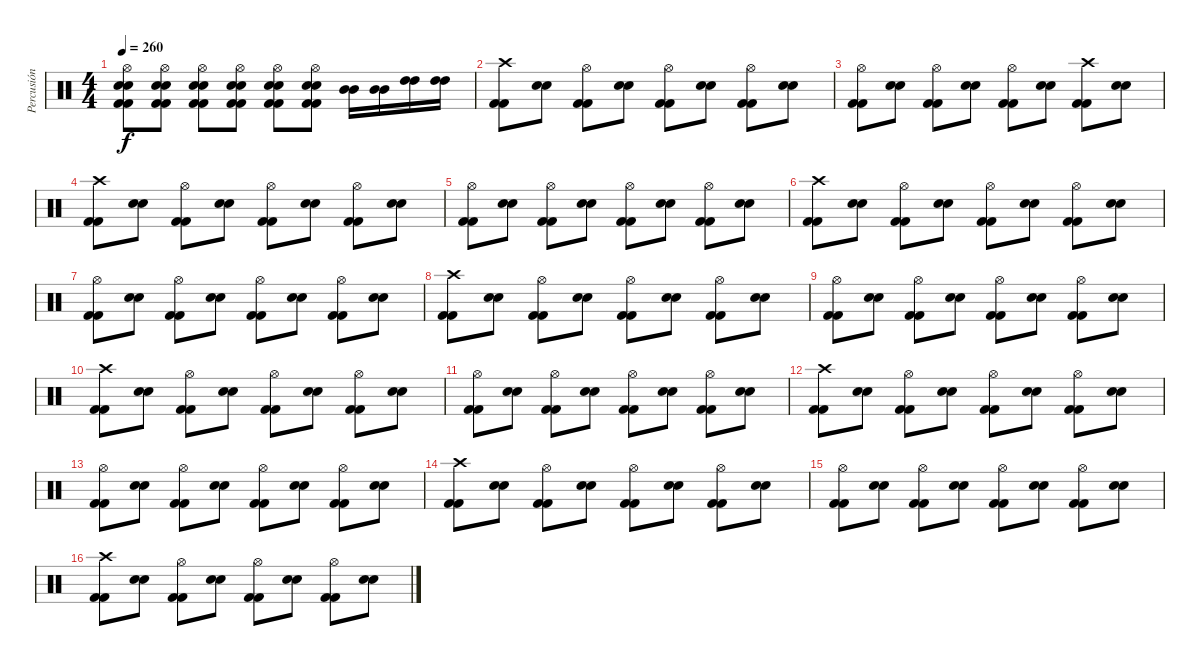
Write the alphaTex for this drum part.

\track ("Percusión" "Percusión") {instrument percussion}
\staff {score}
\articulation defaults
\ts (4 4)
\tempo 260
\clef neutral
\ks c
("Kick (hit) 2" "Kick (hit) 2" "Electric Snare (hit)" "Electric Snare (hit)" "Hi-Hat (open)").8{dy f} ("Kick (hit) 2" "Kick (hit) 2" "Electric Snare (hit)" "Electric Snare (hit)" "Hi-Hat (open)").8 ("Kick (hit) 2" "Kick (hit) 2" "Electric Snare (hit)" "Electric Snare (hit)" "Hi-Hat (open)").8 ("Kick (hit) 2" "Kick (hit) 2" "Electric Snare (hit)" "Electric Snare (hit)" "Hi-Hat (open)").8 ("Kick (hit) 2" "Kick (hit) 2" "Electric Snare (hit)" "Electric Snare (hit)" "Hi-Hat (open)").8 ("Kick (hit) 2" "Kick (hit) 2" "Electric Snare (hit)" "Electric Snare (hit)" "Hi-Hat (open)").8 ("Mid Tom (hit)" "Mid Tom (hit)").16 ("Mid Tom (hit)" "Mid Tom (hit)").16 ("High Tom (hit)" "High Tom (hit)").16 ("High Tom (hit)" "High Tom (hit)").16 |
("Kick (hit) 2" "Kick (hit) 2" "Crash high (hit)").8 ("Electric Snare (hit)" "Electric Snare (hit)").8 ("Kick (hit) 2" "Kick (hit) 2" "Hi-Hat (open)").8 ("Electric Snare (hit)" "Electric Snare (hit)").8 ("Kick (hit) 2" "Kick (hit) 2" "Hi-Hat (open)").8 ("Electric Snare (hit)" "Electric Snare (hit)").8 ("Kick (hit) 2" "Kick (hit) 2" "Hi-Hat (open)").8 ("Electric Snare (hit)" "Electric Snare (hit)").8 |
("Kick (hit) 2" "Kick (hit) 2" "Hi-Hat (open)").8 ("Electric Snare (hit)" "Electric Snare (hit)").8 ("Kick (hit) 2" "Kick (hit) 2" "Hi-Hat (open)").8 ("Electric Snare (hit)" "Electric Snare (hit)").8 ("Kick (hit) 2" "Kick (hit) 2" "Hi-Hat (open)").8 ("Electric Snare (hit)" "Electric Snare (hit)").8 ("Kick (hit) 2" "Kick (hit) 2" "Crash high (hit)").8 ("Electric Snare (hit)" "Electric Snare (hit)").8 |
("Kick (hit) 2" "Kick (hit) 2" "Crash high (hit)").8 ("Electric Snare (hit)" "Electric Snare (hit)").8 ("Kick (hit) 2" "Kick (hit) 2" "Hi-Hat (open)").8 ("Electric Snare (hit)" "Electric Snare (hit)").8 ("Kick (hit) 2" "Kick (hit) 2" "Hi-Hat (open)").8 ("Electric Snare (hit)" "Electric Snare (hit)").8 ("Kick (hit) 2" "Kick (hit) 2" "Hi-Hat (open)").8 ("Electric Snare (hit)" "Electric Snare (hit)").8 |
("Kick (hit) 2" "Kick (hit) 2" "Hi-Hat (open)").8 ("Electric Snare (hit)" "Electric Snare (hit)").8 ("Kick (hit) 2" "Kick (hit) 2" "Hi-Hat (open)").8 ("Electric Snare (hit)" "Electric Snare (hit)").8 ("Kick (hit) 2" "Kick (hit) 2" "Hi-Hat (open)").8 ("Electric Snare (hit)" "Electric Snare (hit)").8 ("Kick (hit) 2" "Kick (hit) 2" "Hi-Hat (open)").8 ("Electric Snare (hit)" "Electric Snare (hit)").8 |
("Kick (hit) 2" "Kick (hit) 2" "Crash high (hit)").8 ("Electric Snare (hit)" "Electric Snare (hit)").8 ("Kick (hit) 2" "Kick (hit) 2" "Hi-Hat (open)").8 ("Electric Snare (hit)" "Electric Snare (hit)").8 ("Kick (hit) 2" "Kick (hit) 2" "Hi-Hat (open)").8 ("Electric Snare (hit)" "Electric Snare (hit)").8 ("Kick (hit) 2" "Kick (hit) 2" "Hi-Hat (open)").8 ("Electric Snare (hit)" "Electric Snare (hit)").8 |
("Kick (hit) 2" "Kick (hit) 2" "Hi-Hat (open)").8 ("Electric Snare (hit)" "Electric Snare (hit)").8 ("Kick (hit) 2" "Kick (hit) 2" "Hi-Hat (open)").8 ("Electric Snare (hit)" "Electric Snare (hit)").8 ("Kick (hit) 2" "Kick (hit) 2" "Hi-Hat (open)").8 ("Electric Snare (hit)" "Electric Snare (hit)").8 ("Kick (hit) 2" "Kick (hit) 2" "Hi-Hat (open)").8 ("Electric Snare (hit)" "Electric Snare (hit)").8 |
("Kick (hit) 2" "Kick (hit) 2" "Crash high (hit)").8 ("Electric Snare (hit)" "Electric Snare (hit)").8 ("Kick (hit) 2" "Kick (hit) 2" "Hi-Hat (open)").8 ("Electric Snare (hit)" "Electric Snare (hit)").8 ("Kick (hit) 2" "Kick (hit) 2" "Hi-Hat (open)").8 ("Electric Snare (hit)" "Electric Snare (hit)").8 ("Kick (hit) 2" "Kick (hit) 2" "Hi-Hat (open)").8 ("Electric Snare (hit)" "Electric Snare (hit)").8 |
("Kick (hit) 2" "Kick (hit) 2" "Hi-Hat (open)").8 ("Electric Snare (hit)" "Electric Snare (hit)").8 ("Kick (hit) 2" "Kick (hit) 2" "Hi-Hat (open)").8 ("Electric Snare (hit)" "Electric Snare (hit)").8 ("Kick (hit) 2" "Kick (hit) 2" "Hi-Hat (open)").8 ("Electric Snare (hit)" "Electric Snare (hit)").8 ("Kick (hit) 2" "Kick (hit) 2" "Hi-Hat (open)").8 ("Electric Snare (hit)" "Electric Snare (hit)").8 |
("Kick (hit) 2" "Kick (hit) 2" "Crash high (hit)").8 ("Electric Snare (hit)" "Electric Snare (hit)").8 ("Kick (hit) 2" "Kick (hit) 2" "Hi-Hat (open)").8 ("Electric Snare (hit)" "Electric Snare (hit)").8 ("Kick (hit) 2" "Kick (hit) 2" "Hi-Hat (open)").8 ("Electric Snare (hit)" "Electric Snare (hit)").8 ("Kick (hit) 2" "Kick (hit) 2" "Hi-Hat (open)").8 ("Electric Snare (hit)" "Electric Snare (hit)").8 |
("Kick (hit) 2" "Kick (hit) 2" "Hi-Hat (open)").8 ("Electric Snare (hit)" "Electric Snare (hit)").8 ("Kick (hit) 2" "Kick (hit) 2" "Hi-Hat (open)").8 ("Electric Snare (hit)" "Electric Snare (hit)").8 ("Kick (hit) 2" "Kick (hit) 2" "Hi-Hat (open)").8 ("Electric Snare (hit)" "Electric Snare (hit)").8 ("Kick (hit) 2" "Kick (hit) 2" "Hi-Hat (open)").8 ("Electric Snare (hit)" "Electric Snare (hit)").8 |
("Kick (hit) 2" "Kick (hit) 2" "Crash high (hit)").8 ("Electric Snare (hit)" "Electric Snare (hit)").8 ("Kick (hit) 2" "Kick (hit) 2" "Hi-Hat (open)").8 ("Electric Snare (hit)" "Electric Snare (hit)").8 ("Kick (hit) 2" "Kick (hit) 2" "Hi-Hat (open)").8 ("Electric Snare (hit)" "Electric Snare (hit)").8 ("Kick (hit) 2" "Kick (hit) 2" "Hi-Hat (open)").8 ("Electric Snare (hit)" "Electric Snare (hit)").8 |
("Kick (hit) 2" "Kick (hit) 2" "Hi-Hat (open)").8 ("Electric Snare (hit)" "Electric Snare (hit)").8 ("Kick (hit) 2" "Kick (hit) 2" "Hi-Hat (open)").8 ("Electric Snare (hit)" "Electric Snare (hit)").8 ("Kick (hit) 2" "Kick (hit) 2" "Hi-Hat (open)").8 ("Electric Snare (hit)" "Electric Snare (hit)").8 ("Kick (hit) 2" "Kick (hit) 2" "Hi-Hat (open)").8 ("Electric Snare (hit)" "Electric Snare (hit)").8 |
("Kick (hit) 2" "Kick (hit) 2" "Crash high (hit)").8 ("Electric Snare (hit)" "Electric Snare (hit)").8 ("Kick (hit) 2" "Kick (hit) 2" "Hi-Hat (open)").8 ("Electric Snare (hit)" "Electric Snare (hit)").8 ("Kick (hit) 2" "Kick (hit) 2" "Hi-Hat (open)").8 ("Electric Snare (hit)" "Electric Snare (hit)").8 ("Kick (hit) 2" "Kick (hit) 2" "Hi-Hat (open)").8 ("Electric Snare (hit)" "Electric Snare (hit)").8 |
("Kick (hit) 2" "Kick (hit) 2" "Hi-Hat (open)").8 ("Electric Snare (hit)" "Electric Snare (hit)").8 ("Kick (hit) 2" "Kick (hit) 2" "Hi-Hat (open)").8 ("Electric Snare (hit)" "Electric Snare (hit)").8 ("Kick (hit) 2" "Kick (hit) 2" "Hi-Hat (open)").8 ("Electric Snare (hit)" "Electric Snare (hit)").8 ("Kick (hit) 2" "Kick (hit) 2" "Hi-Hat (open)").8 ("Electric Snare (hit)" "Electric Snare (hit)").8 |
("Kick (hit) 2" "Kick (hit) 2" "Crash high (hit)").8 ("Electric Snare (hit)" "Electric Snare (hit)").8 ("Kick (hit) 2" "Kick (hit) 2" "Hi-Hat (open)").8 ("Electric Snare (hit)" "Electric Snare (hit)").8 ("Kick (hit) 2" "Kick (hit) 2" "Hi-Hat (open)").8 ("Electric Snare (hit)" "Electric Snare (hit)").8 ("Kick (hit) 2" "Kick (hit) 2" "Hi-Hat (open)").8 ("Electric Snare (hit)" "Electric Snare (hit)").8
